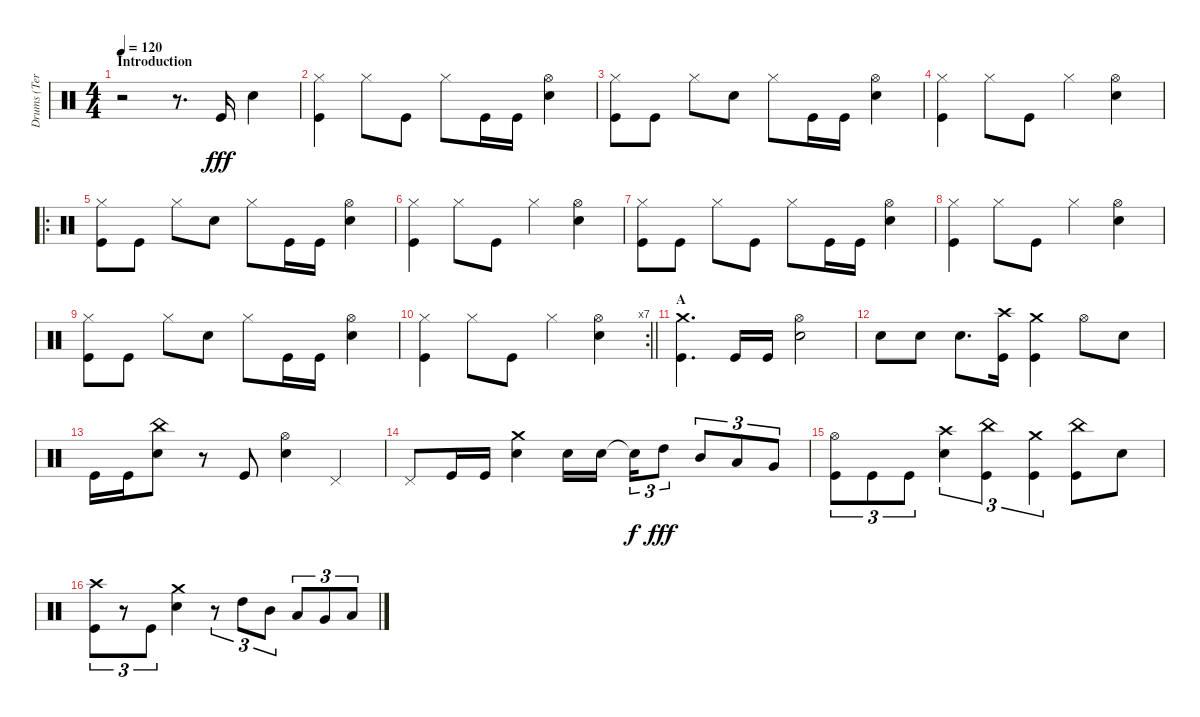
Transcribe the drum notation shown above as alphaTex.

\track ("Drums (Terry Bozzio)" "Drums (Ter") {instrument percussion}
\staff {score}
\articulation defaults
\ts (4 4)
\section ("" "Introduction")
\tempo 120
\clef neutral
\ks c
r.2{dy fff} r.8{d} "Kick (hit)".16 "Snare (hit) 2".4 |
("Hi-Hat (closed)" "Kick (hit)").4 "Hi-Hat (closed)".8 "Kick (hit)".8 "Hi-Hat (closed)".8 "Kick (hit)".16 "Kick (hit)".16 ("Hi-Hat (open)" "Snare (hit) 2").4 |
("Hi-Hat (closed)" "Kick (hit)").8 "Kick (hit)".8 "Hi-Hat (closed)".8 "Snare (hit) 2".8 "Hi-Hat (closed)".8 "Kick (hit)".16 "Kick (hit)".16 ("Hi-Hat (open)" "Snare (hit) 2").4 |
("Hi-Hat (closed)" "Kick (hit)").4 "Hi-Hat (closed)".8 "Kick (hit)".8 "Hi-Hat (closed)".4 ("Hi-Hat (open)" "Snare (hit) 2").4 |
\ro
("Hi-Hat (closed)" "Kick (hit)").8 "Kick (hit)".8 "Hi-Hat (closed)".8 "Snare (hit) 2".8 "Hi-Hat (closed)".8 "Kick (hit)".16 "Kick (hit)".16 ("Hi-Hat (open)" "Snare (hit) 2").4 |
("Hi-Hat (closed)" "Kick (hit)").4 "Hi-Hat (closed)".8 "Kick (hit)".8 "Hi-Hat (closed)".4 ("Hi-Hat (open)" "Snare (hit) 2").4 |
("Hi-Hat (closed)" "Kick (hit)").8 "Kick (hit)".8 "Hi-Hat (closed)".8 "Kick (hit)".8 "Hi-Hat (closed)".8 "Kick (hit)".16 "Kick (hit)".16 ("Hi-Hat (open)" "Snare (hit) 2").4 |
("Hi-Hat (closed)" "Kick (hit)").4 "Hi-Hat (closed)".8 "Kick (hit)".8 "Hi-Hat (closed)".4 ("Hi-Hat (open)" "Snare (hit) 2").4 |
("Hi-Hat (closed)" "Kick (hit)").8 "Kick (hit)".8 "Hi-Hat (closed)".8 "Snare (hit) 2".8 "Hi-Hat (closed)".8 "Kick (hit)".16 "Kick (hit)".16 ("Hi-Hat (open)" "Snare (hit) 2").4 |
\rc 7
\barLineRight lightlight
("Hi-Hat (closed)" "Kick (hit)").4 "Hi-Hat (closed)".8 "Kick (hit)".8 "Hi-Hat (closed)".4 ("Hi-Hat (open)" "Snare (hit) 2").4 |
\section ("" "A")
("Crash medium (hit)" "Kick (hit)").4{d} "Kick (hit)".16 "Kick (hit)".16 ("Hi-Hat (open)" "Snare (hit) 2").2 |
"Snare (hit) 2".8 "Snare (hit) 2".8 "Snare (hit) 2".8{d} ("Crash high (hit)" "Kick (hit)").16 ("Crash medium (hit)" "Kick (hit)").4 "Hi-Hat (open)".8 "Snare (hit) 2".8 |
"Kick (hit)".16 "Kick (hit)".16 ("China (hit)" "Snare (hit) 2").8 r.8 "Kick (hit)".8 ("Hi-Hat (open)" "Snare (hit) 2").4 "Pedal Hi-Hat (hit)".4 |
"Pedal Hi-Hat (hit)".8 "Kick (hit)".16 "Kick (hit)".16 ("Crash medium (hit)" "Snare (hit) 2").4 "Snare (hit) 2".16 "Snare (hit) 2".16 "Snare (hit)"{t}.16{tu (3 2) dy f} "High Tom (hit)".8{tu (3 2) dy fff} "Mid Tom (hit)".8{tu (3 2)} "Low Tom (hit)".8{tu (3 2)} "Very Low Tom (hit)".8{tu (3 2)} |
("Hi-Hat (open)" "Kick (hit)").8{tu (3 2)} "Kick (hit)".8{tu (3 2)} "Kick (hit)".8{tu (3 2)} ("Crash high (hit)" "Snare (hit) 2").4{tu (3 2)} ("China (hit)" "Kick (hit)").4{tu (3 2)} ("Crash medium (hit)" "Kick (hit)").4{tu (3 2)} ("China (hit)" "Kick (hit)").8 "Snare (hit) 2".8 |
("Crash high (hit)" "Kick (hit)").8{tu (3 2)} r.8{tu (3 2)} "Kick (hit)".8{tu (3 2)} ("Crash medium (hit)" "Snare (hit) 2").4 r.8{tu (3 2)} "High Tom (hit)".8{tu (3 2)} "Mid Tom (hit)".8{tu (3 2)} "Low Tom (hit)".8{tu (3 2)} "Very Low Tom (hit)".8{tu (3 2)} "Low Floor Tom (hit)".8{tu (3 2)}
